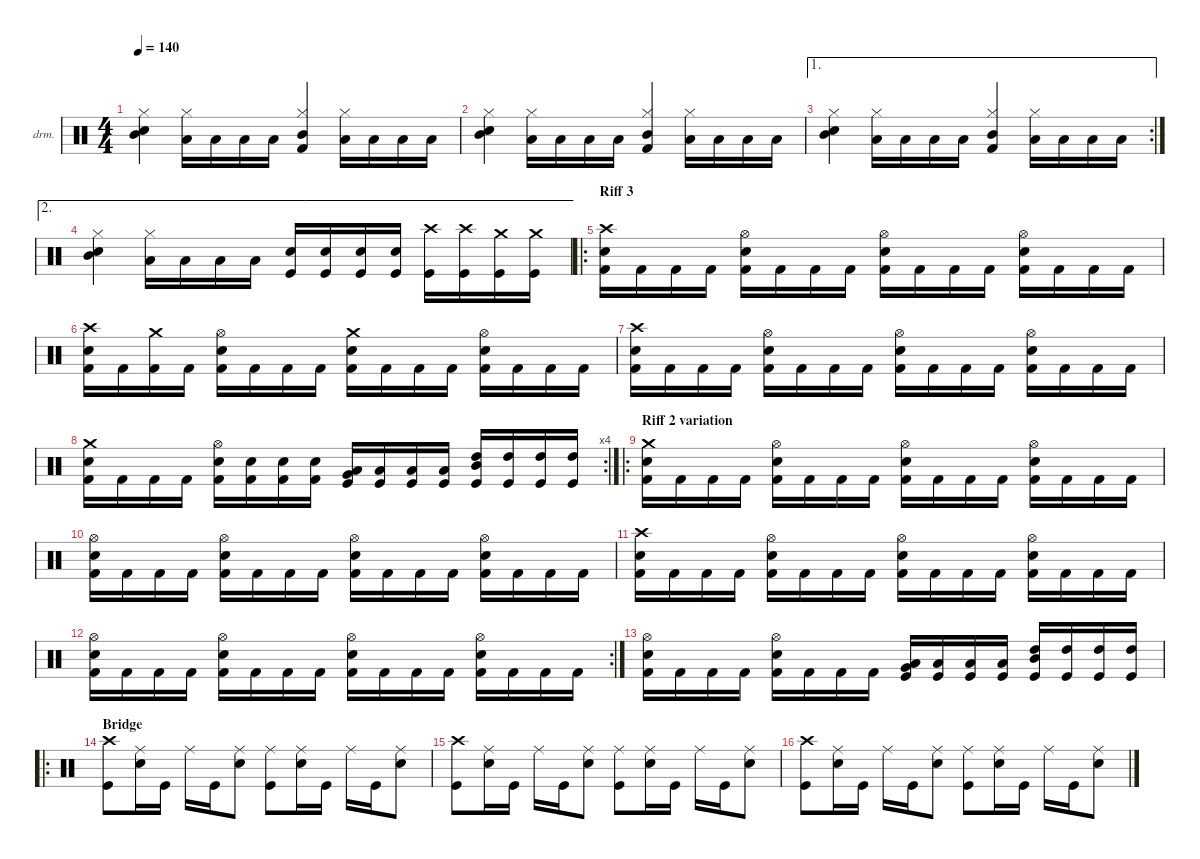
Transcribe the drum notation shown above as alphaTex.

\defaultSystemsLayout 4
\hideDynamics
\bracketExtendMode nobrackets
\firstSystemTrackNameOrientation horizontal
\otherSystemsTrackNameOrientation horizontal
\track ("Drumkit" "drm.") {instrument percussion}
\staff {score}
\articulation defaults
\ts (4 4)
\tempo 140
\clef neutral
\ks c
("Snare (hit) 2" "Mid Tom (hit)" "Hi-Hat (closed)").4{dy fff} ("Low Tom (hit)" "Hi-Hat (closed)").16 "Low Tom (hit)".16 "Low Tom (hit)".16 "Low Tom (hit)".16 ("Mid Tom (hit)" "Kick (hit) 2" "Hi-Hat (closed)").4 ("Low Tom (hit)" "Hi-Hat (closed)").16 "Low Tom (hit)".16 "Low Tom (hit)".16 "Low Tom (hit)".16 |
("Snare (hit) 2" "Mid Tom (hit)" "Hi-Hat (closed)").4 ("Low Tom (hit)" "Hi-Hat (closed)").16 "Low Tom (hit)".16 "Low Tom (hit)".16 "Low Tom (hit)".16 ("Mid Tom (hit)" "Kick (hit) 2" "Hi-Hat (closed)").4 ("Low Tom (hit)" "Hi-Hat (closed)").16 "Low Tom (hit)".16 "Low Tom (hit)".16 "Low Tom (hit)".16 |
\ae 1
\rc 2
("Snare (hit) 2" "Mid Tom (hit)" "Hi-Hat (closed)").4 ("Low Tom (hit)" "Hi-Hat (closed)").16 "Low Tom (hit)".16 "Low Tom (hit)".16 "Low Tom (hit)".16 ("Mid Tom (hit)" "Kick (hit) 2" "Hi-Hat (closed)").4 ("Low Tom (hit)" "Hi-Hat (closed)").16 "Low Tom (hit)".16 "Low Tom (hit)".16 "Low Tom (hit)".16 |
\ae 2
("Snare (hit) 2" "Mid Tom (hit)" "Hi-Hat (closed)").4 ("Low Tom (hit)" "Hi-Hat (closed)").16 "Low Tom (hit)".16 "Low Tom (hit)".16 "Low Tom (hit)".16 ("Kick (hit)" "Snare (hit) 2").16{dy f} ("Kick (hit)" "Snare (hit) 2").16 ("Kick (hit)" "Snare (hit) 2").16 ("Kick (hit)" "Snare (hit) 2").16 ("Kick (hit)" "Crash high (hit)").16 ("Kick (hit)" "Crash high (hit)").16 ("Kick (hit)" "Crash medium (hit)").16 ("Kick (hit)" "Crash medium (hit)").16 |
\ro
\section ("" "Riff 3")
("Crash high (hit)" "Snare (hit) 2" "Kick (hit) 2").16 "Kick (hit) 2".16 "Kick (hit) 2".16 "Kick (hit) 2".16 ("Hi-Hat (open)" "Snare (hit) 2" "Kick (hit) 2").16 "Kick (hit) 2".16 "Kick (hit) 2".16 "Kick (hit) 2".16 ("Hi-Hat (open)" "Snare (hit) 2" "Kick (hit) 2").16 "Kick (hit) 2".16 "Kick (hit) 2".16 "Kick (hit) 2".16 ("Hi-Hat (open)" "Snare (hit) 2" "Kick (hit) 2").16 "Kick (hit) 2".16 "Kick (hit) 2".16 "Kick (hit) 2".16 |
("Crash high (hit)" "Snare (hit) 2" "Kick (hit) 2").16 "Kick (hit) 2".16 ("Kick (hit) 2" "Crash medium (hit)").16 "Kick (hit) 2".16 ("Hi-Hat (open)" "Snare (hit) 2" "Kick (hit) 2").16 "Kick (hit) 2".16 "Kick (hit) 2".16 "Kick (hit) 2".16 ("Snare (hit) 2" "Kick (hit) 2" "Crash medium (hit)").16 "Kick (hit) 2".16 "Kick (hit) 2".16 "Kick (hit) 2".16 ("Hi-Hat (open)" "Snare (hit) 2" "Kick (hit) 2").16 "Kick (hit) 2".16 "Kick (hit) 2".16 "Kick (hit) 2".16 |
("Crash high (hit)" "Snare (hit) 2" "Kick (hit) 2").16 "Kick (hit) 2".16 "Kick (hit) 2".16 "Kick (hit) 2".16 ("Hi-Hat (open)" "Snare (hit) 2" "Kick (hit) 2").16 "Kick (hit) 2".16 "Kick (hit) 2".16 "Kick (hit) 2".16 ("Hi-Hat (open)" "Snare (hit) 2" "Kick (hit) 2").16 "Kick (hit) 2".16 "Kick (hit) 2".16 "Kick (hit) 2".16 ("Hi-Hat (open)" "Snare (hit) 2" "Kick (hit) 2").16 "Kick (hit) 2".16 "Kick (hit) 2".16 "Kick (hit) 2".16 |
\rc 4
("Snare (hit) 2" "Kick (hit) 2" "Crash medium (hit)").16 "Kick (hit) 2".16 "Kick (hit) 2".16 "Kick (hit) 2".16 ("Hi-Hat (open)" "Snare (hit) 2" "Kick (hit) 2").16 ("Kick (hit) 2" "Snare (hit) 2").16 ("Kick (hit) 2" "Snare (hit) 2").16 ("Kick (hit) 2" "Snare (hit) 2").16 ("Kick (hit)" "Very Low Tom (hit)" "Low Tom (hit)").16 ("Kick (hit)" "Low Tom (hit)").16 ("Kick (hit)" "Low Tom (hit)").16 ("Kick (hit)" "Low Tom (hit)").16 ("High Tom (hit)" "Mid Tom (hit)" "Kick (hit)").16 ("Kick (hit)" "High Tom (hit)").16 ("High Tom (hit)" "Kick (hit)").16 ("High Tom (hit)" "Kick (hit)").16 |
\ro
\section ("" "Riff 2 variation")
("Crash medium (hit)" "Snare (hit) 2" "Kick (hit) 2").16{dy mf} "Kick (hit) 2".16 "Kick (hit) 2".16 "Kick (hit) 2".16 ("Hi-Hat (open)" "Snare (hit) 2" "Kick (hit) 2").16 "Kick (hit) 2".16 "Kick (hit) 2".16 "Kick (hit) 2".16 ("Hi-Hat (open)" "Snare (hit) 2" "Kick (hit) 2").16 "Kick (hit) 2".16 "Kick (hit) 2".16 "Kick (hit) 2".16 ("Hi-Hat (open)" "Snare (hit) 2" "Kick (hit) 2").16 "Kick (hit) 2".16 "Kick (hit) 2".16 "Kick (hit) 2".16 |
("Hi-Hat (open)" "Snare (hit) 2" "Kick (hit) 2").16 "Kick (hit) 2".16 "Kick (hit) 2".16 "Kick (hit) 2".16 ("Hi-Hat (open)" "Snare (hit) 2" "Kick (hit) 2").16 "Kick (hit) 2".16 "Kick (hit) 2".16 "Kick (hit) 2".16 ("Hi-Hat (open)" "Snare (hit) 2" "Kick (hit) 2").16 "Kick (hit) 2".16 "Kick (hit) 2".16 "Kick (hit) 2".16 ("Hi-Hat (open)" "Snare (hit) 2" "Kick (hit) 2").16 "Kick (hit) 2".16 "Kick (hit) 2".16 "Kick (hit) 2".16 |
("Crash high (hit)" "Snare (hit) 2" "Kick (hit) 2").16 "Kick (hit) 2".16 "Kick (hit) 2".16 "Kick (hit) 2".16 ("Hi-Hat (open)" "Snare (hit) 2" "Kick (hit) 2").16 "Kick (hit) 2".16 "Kick (hit) 2".16 "Kick (hit) 2".16 ("Hi-Hat (open)" "Snare (hit) 2" "Kick (hit) 2").16 "Kick (hit) 2".16 "Kick (hit) 2".16 "Kick (hit) 2".16 ("Hi-Hat (open)" "Snare (hit) 2" "Kick (hit) 2").16 "Kick (hit) 2".16 "Kick (hit) 2".16 "Kick (hit) 2".16 |
\rc 2
("Hi-Hat (open)" "Snare (hit) 2" "Kick (hit) 2").16 "Kick (hit) 2".16 "Kick (hit) 2".16 "Kick (hit) 2".16 ("Hi-Hat (open)" "Snare (hit) 2" "Kick (hit) 2").16 "Kick (hit) 2".16 "Kick (hit) 2".16 "Kick (hit) 2".16 ("Hi-Hat (open)" "Snare (hit) 2" "Kick (hit) 2").16 "Kick (hit) 2".16 "Kick (hit) 2".16 "Kick (hit) 2".16 ("Hi-Hat (open)" "Snare (hit) 2" "Kick (hit) 2").16 "Kick (hit) 2".16 "Kick (hit) 2".16 "Kick (hit) 2".16 |
("Hi-Hat (open)" "Snare (hit) 2" "Kick (hit) 2").16 "Kick (hit) 2".16 "Kick (hit) 2".16 "Kick (hit) 2".16 ("Hi-Hat (open)" "Snare (hit) 2" "Kick (hit) 2").16 "Kick (hit) 2".16 "Kick (hit) 2".16 "Kick (hit) 2".16 ("Kick (hit)" "Very Low Tom (hit)" "Low Tom (hit)").16{dy f} ("Kick (hit)" "Low Tom (hit)").16 ("Kick (hit)" "Low Tom (hit)").16 ("Kick (hit)" "Low Tom (hit)").16 ("High Tom (hit)" "Mid Tom (hit)" "Kick (hit)").16 ("Kick (hit)" "High Tom (hit)").16 ("High Tom (hit)" "Kick (hit)").16 ("High Tom (hit)" "Kick (hit)").16 |
\ro
\section ("" "Bridge")
("Crash high (hit)" "Kick (hit)").8 ("Ride (middle)" "Snare (hit) 2").16 "Kick (hit)".16 "Ride (middle)".16 "Kick (hit)".16 ("Ride (middle)" "Snare (hit) 2").8 ("Ride (middle)" "Kick (hit)").8 ("Ride (middle)" "Snare (hit) 2").16 "Kick (hit)".16 "Ride (middle)".16 "Kick (hit)".16 ("Ride (middle)" "Snare (hit) 2").8 |
("Crash high (hit)" "Kick (hit)").8 ("Ride (middle)" "Snare (hit) 2").16 "Kick (hit)".16 "Ride (middle)".16 "Kick (hit)".16 ("Ride (middle)" "Snare (hit) 2").8 ("Ride (middle)" "Kick (hit)").8 ("Ride (middle)" "Snare (hit) 2").16 "Kick (hit)".16 "Ride (middle)".16 "Kick (hit)".16 ("Ride (middle)" "Snare (hit) 2").8 |
("Crash high (hit)" "Kick (hit)").8 ("Ride (middle)" "Snare (hit) 2").16 "Kick (hit)".16 "Ride (middle)".16 "Kick (hit)".16 ("Ride (middle)" "Snare (hit) 2").8 ("Ride (middle)" "Kick (hit)").8 ("Ride (middle)" "Snare (hit) 2").16 "Kick (hit)".16 "Ride (middle)".16 "Kick (hit)".16 ("Ride (middle)" "Snare (hit) 2").8
